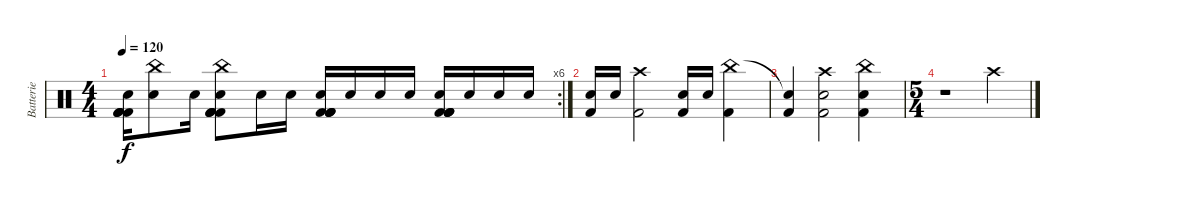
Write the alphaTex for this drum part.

\track ("Batterie" "Batterie") {instrument percussion}
\staff {score}
\articulation defaults
\rc 6
\ts (4 4)
\tempo 120
\clef neutral
\ks c
("Snare (hit) 2" "Kick (hit) 2" "Kick (hit) 2" "Kick (hit) 2" "Kick (hit) 2").16{dy f} ("Electric Snare (hit)" "China (hit)").8 "Snare (hit) 2".16 ("Electric Snare (hit)" "China (hit)" "Kick (hit) 2" "Kick (hit) 2" "Kick (hit) 2" "Kick (hit) 2").8 "Electric Snare (hit)".16 "Electric Snare (hit)".16 ("Electric Snare (hit)" "Kick (hit) 2" "Kick (hit) 2" "Kick (hit) 2" "Kick (hit) 2").16 "Electric Snare (hit)".16 "Electric Snare (hit)".16 "Electric Snare (hit)".16 ("Electric Snare (hit)" "Kick (hit) 2" "Kick (hit) 2" "Kick (hit) 2" "Kick (hit) 2").16 "Electric Snare (hit)".16 "Electric Snare (hit)".16 "Electric Snare (hit)".16 |
("Snare (hit) 2" "Kick (hit) 2").16 "Snare (hit) 2".16 ("Crash high (hit)" "Kick (hit) 2").2 ("Electric Snare (hit)" "Kick (hit) 2").16 "Electric Snare (hit)".16 ("China (hit)" "Kick (hit) 2").4 |
("Snare (hit)"{t} "Kick (hit) 2").4 ("Snare (hit) 2" "Crash high (hit)" "Kick (hit) 2").2 ("Electric Snare (hit)" "China (hit)" "Kick (hit) 2").4 |
\ts (5 4)
r.1 "Crash high (hit)".4
